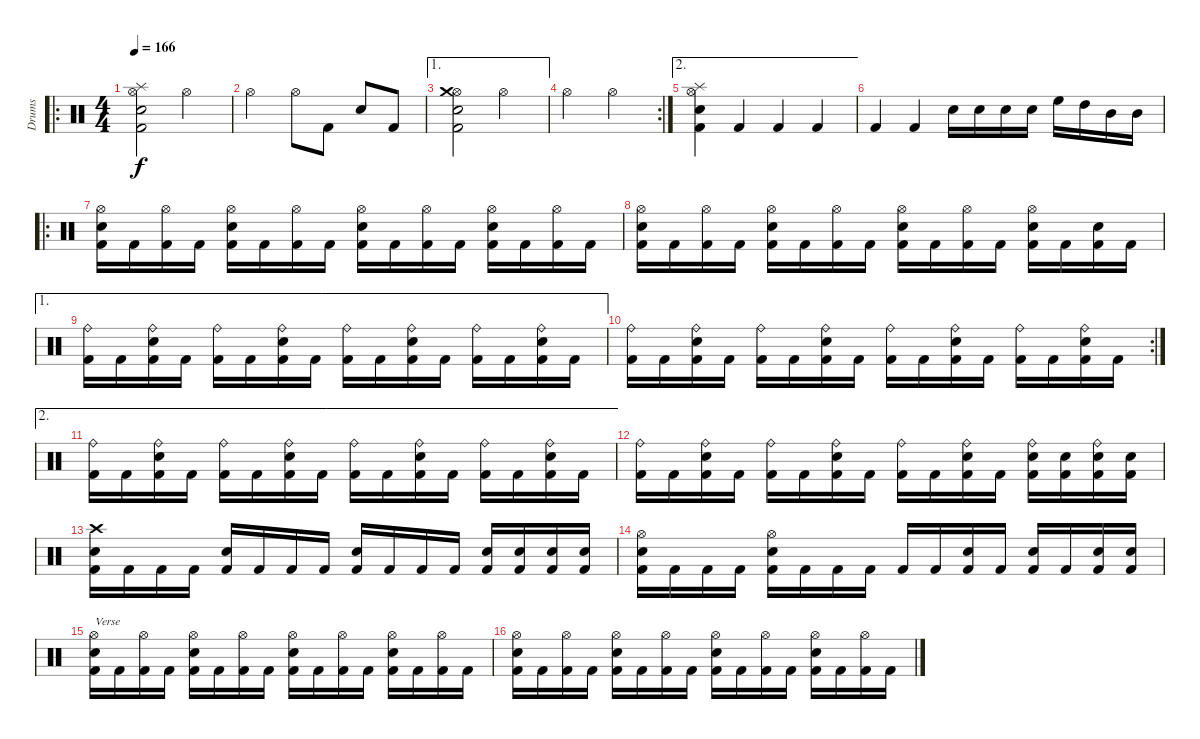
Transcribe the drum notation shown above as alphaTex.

\track ("Drums" "Drums") {instrument percussion}
\staff {score}
\articulation defaults
\ro
\ts (4 4)
\tempo 166
\clef neutral
\ks c
("Kick (hit) 2" "Snare (hit) 2" "Hi-Hat (open)" "Splash (hit)").2{dy f} "Hi-Hat (open)".2 |
"Hi-Hat (open)".2 "Hi-Hat (open)".8 "Kick (hit) 2".8 "Snare (hit) 2".8 "Kick (hit) 2".8 |
\ae 1
("Kick (hit) 2" "Snare (hit) 2" "Hi-Hat (open)" "Crash medium (hit)").2 "Hi-Hat (open)".2 |
\rc 2 "Hi-Hat (open)".2 "Hi-Hat (open)".2
|
\ae 2
("Kick (hit) 2" "Snare (hit) 2" "Hi-Hat (open)" "Splash (hit)").4 "Kick (hit) 2".4 "Kick (hit) 2".4 "Kick (hit) 2".4 |
"Kick (hit) 2".4 "Kick (hit) 2".4 "Snare (hit) 2".16 "Snare (hit) 2".16 "Snare (hit) 2".16 "Snare (hit) 2".16 "High Floor Tom (hit)".16 "High Tom (hit)".16 "Mid Tom (hit)".16 "Mid Tom (hit)".16 |
\ro
("Kick (hit) 2" "Snare (hit) 2" "Hi-Hat (open)").16 "Kick (hit) 2".16 ("Kick (hit) 2" "Hi-Hat (open)").16 "Kick (hit) 2".16 ("Kick (hit) 2" "Snare (hit) 2" "Hi-Hat (open)").16 "Kick (hit) 2".16 ("Kick (hit) 2" "Hi-Hat (open)").16 "Kick (hit) 2".16 ("Kick (hit) 2" "Snare (hit) 2" "Hi-Hat (open)").16 "Kick (hit) 2".16 ("Kick (hit) 2" "Hi-Hat (open)").16 "Kick (hit) 2".16 ("Kick (hit) 2" "Snare (hit) 2" "Hi-Hat (open)").16 "Kick (hit) 2".16 ("Kick (hit) 2" "Hi-Hat (open)").16 "Kick (hit) 2".16 |
("Kick (hit) 2" "Snare (hit) 2" "Hi-Hat (open)").16 "Kick (hit) 2".16 ("Kick (hit) 2" "Hi-Hat (open)").16 "Kick (hit) 2".16 ("Kick (hit) 2" "Snare (hit) 2" "Hi-Hat (open)").16 "Kick (hit) 2".16 ("Kick (hit) 2" "Hi-Hat (open)").16 "Kick (hit) 2".16 ("Kick (hit) 2" "Snare (hit) 2" "Hi-Hat (open)").16 "Kick (hit) 2".16 ("Kick (hit) 2" "Hi-Hat (open)").16 "Kick (hit) 2".16 ("Kick (hit) 2" "Snare (hit) 2" "Hi-Hat (open)").16 "Kick (hit) 2".16 ("Kick (hit) 2" "Snare (hit) 2").16 "Kick (hit) 2".16 |
\ae 1
("Kick (hit) 2" "Ride (bell)").16 "Kick (hit) 2".16 ("Kick (hit) 2" "Snare (hit) 2" "Ride (bell)").16 "Kick (hit) 2".16 ("Kick (hit) 2" "Ride (bell)").16 "Kick (hit) 2".16 ("Kick (hit) 2" "Snare (hit) 2" "Ride (bell)").16 "Kick (hit) 2".16 ("Kick (hit) 2" "Ride (bell)").16 "Kick (hit) 2".16 ("Kick (hit) 2" "Snare (hit) 2" "Ride (bell)").16 "Kick (hit) 2".16 ("Kick (hit) 2" "Ride (bell)").16 "Kick (hit) 2".16 ("Kick (hit) 2" "Snare (hit) 2" "Ride (bell)").16 "Kick (hit) 2".16 |
\rc 2
("Kick (hit) 2" "Ride (bell)").16 "Kick (hit) 2".16 ("Kick (hit) 2" "Snare (hit) 2" "Ride (bell)").16 "Kick (hit) 2".16 ("Kick (hit) 2" "Ride (bell)").16 "Kick (hit) 2".16 ("Kick (hit) 2" "Snare (hit) 2" "Ride (bell)").16 "Kick (hit) 2".16 ("Kick (hit) 2" "Ride (bell)").16 "Kick (hit) 2".16 ("Kick (hit) 2" "Snare (hit) 2" "Ride (bell)").16 "Kick (hit) 2".16 ("Kick (hit) 2" "Ride (bell)").16 "Kick (hit) 2".16 ("Kick (hit) 2" "Snare (hit) 2" "Ride (bell)").16 "Kick (hit) 2".16 |
\ae 2
("Kick (hit) 2" "Ride (bell)").16 "Kick (hit) 2".16 ("Kick (hit) 2" "Snare (hit) 2" "Ride (bell)").16 "Kick (hit) 2".16 ("Kick (hit) 2" "Ride (bell)").16 "Kick (hit) 2".16 ("Kick (hit) 2" "Snare (hit) 2" "Ride (bell)").16 "Kick (hit) 2".16 ("Kick (hit) 2" "Ride (bell)").16 "Kick (hit) 2".16 ("Kick (hit) 2" "Snare (hit) 2" "Ride (bell)").16 "Kick (hit) 2".16 ("Kick (hit) 2" "Ride (bell)").16 "Kick (hit) 2".16 ("Kick (hit) 2" "Snare (hit) 2" "Ride (bell)").16 "Kick (hit) 2".16 |
("Kick (hit) 2" "Ride (bell)").16 "Kick (hit) 2".16 ("Kick (hit) 2" "Snare (hit) 2" "Ride (bell)").16 "Kick (hit) 2".16 ("Kick (hit) 2" "Ride (bell)").16 "Kick (hit) 2".16 ("Kick (hit) 2" "Snare (hit) 2" "Ride (bell)").16 "Kick (hit) 2".16 ("Kick (hit) 2" "Ride (bell)").16 "Kick (hit) 2".16 ("Kick (hit) 2" "Snare (hit) 2" "Ride (bell)").16 "Kick (hit) 2".16 ("Kick (hit) 2" "Snare (hit) 2" "Ride (bell)").16 ("Kick (hit) 2" "Snare (hit) 2").16 ("Kick (hit) 2" "Snare (hit) 2" "Ride (bell)").16 ("Kick (hit) 2" "Snare (hit) 2").16 |
("Kick (hit) 2" "Snare (hit) 2" "Crash high (hit)").16 "Kick (hit) 2".16 "Kick (hit) 2".16 "Kick (hit) 2".16 ("Kick (hit) 2" "Snare (hit) 2").16 "Kick (hit) 2".16 "Kick (hit) 2".16 "Kick (hit) 2".16 ("Kick (hit) 2" "Snare (hit) 2").16 "Kick (hit) 2".16 "Kick (hit) 2".16 "Kick (hit) 2".16 ("Kick (hit) 2" "Snare (hit) 2").16 ("Kick (hit) 2" "Snare (hit) 2").16 ("Kick (hit) 2" "Snare (hit) 2").16 ("Kick (hit) 2" "Snare (hit) 2").16 |
("Kick (hit) 2" "Snare (hit) 2" "Hi-Hat (open)").16 "Kick (hit) 2".16 "Kick (hit) 2".16 "Kick (hit) 2".16 ("Kick (hit) 2" "Snare (hit) 2" "Hi-Hat (open)").16 "Kick (hit) 2".16 "Kick (hit) 2".16 "Kick (hit) 2".16 "Kick (hit) 2".16 "Kick (hit) 2".16 ("Kick (hit) 2" "Snare (hit) 2").16 "Kick (hit) 2".16 ("Kick (hit) 2" "Snare (hit) 2").16 "Kick (hit) 2".16 ("Kick (hit) 2" "Snare (hit) 2").16 ("Kick (hit) 2" "Snare (hit) 2").16 |
("Kick (hit) 2" "Snare (hit) 2" "Hi-Hat (open)").16{txt "Verse"} "Kick (hit) 2".16 ("Kick (hit) 2" "Hi-Hat (open)").16 "Kick (hit) 2".16 ("Kick (hit) 2" "Snare (hit) 2" "Hi-Hat (open)").16 "Kick (hit) 2".16 ("Kick (hit) 2" "Hi-Hat (open)").16 "Kick (hit) 2".16 ("Kick (hit) 2" "Snare (hit) 2" "Hi-Hat (open)").16 "Kick (hit) 2".16 ("Kick (hit) 2" "Hi-Hat (open)").16 "Kick (hit) 2".16 ("Kick (hit) 2" "Snare (hit) 2" "Hi-Hat (open)").16 "Kick (hit) 2".16 ("Kick (hit) 2" "Hi-Hat (open)").16 "Kick (hit) 2".16 |
("Kick (hit) 2" "Snare (hit) 2" "Hi-Hat (open)").16 "Kick (hit) 2".16 ("Kick (hit) 2" "Hi-Hat (open)").16 "Kick (hit) 2".16 ("Kick (hit) 2" "Snare (hit) 2" "Hi-Hat (open)").16 "Kick (hit) 2".16 ("Kick (hit) 2" "Hi-Hat (open)").16 "Kick (hit) 2".16 ("Kick (hit) 2" "Snare (hit) 2" "Hi-Hat (open)").16 "Kick (hit) 2".16 ("Kick (hit) 2" "Hi-Hat (open)").16 "Kick (hit) 2".16 ("Kick (hit) 2" "Snare (hit) 2" "Hi-Hat (open)").16 "Kick (hit) 2".16 ("Kick (hit) 2" "Hi-Hat (open)").16 "Kick (hit) 2".16
